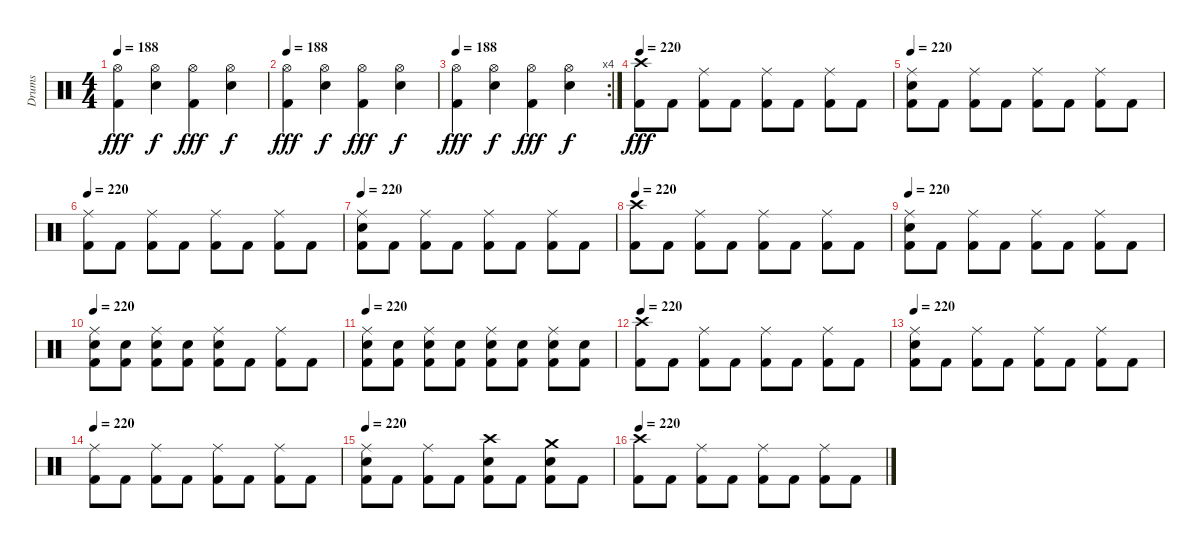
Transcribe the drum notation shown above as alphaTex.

\track ("Drums" "Drums") {instrument percussion}
\staff {score}
\articulation defaults
\ts (4 4)
\tempo 188
\clef neutral
\ks c
("Hi-Hat (open)" "Kick (hit) 2").4{dy fff} ("Hi-Hat (open)" "Snare (hit) 2").4{dy f} ("Hi-Hat (open)" "Kick (hit) 2").4{dy fff} ("Hi-Hat (open)" "Snare (hit) 2").4{dy f} |
\tempo 188
("Hi-Hat (open)" "Kick (hit) 2").4{dy fff} ("Hi-Hat (open)" "Snare (hit) 2").4{dy f} ("Hi-Hat (open)" "Kick (hit) 2").4{dy fff} ("Hi-Hat (open)" "Snare (hit) 2").4{dy f} |
\rc 4
\tempo 188
("Hi-Hat (open)" "Kick (hit) 2").4{dy fff} ("Hi-Hat (open)" "Snare (hit) 2").4{dy f} ("Hi-Hat (open)" "Kick (hit) 2").4{dy fff} ("Hi-Hat (open)" "Snare (hit) 2").4{dy f} |
\tempo 220
("Crash high (hit)" "Kick (hit) 2").8{dy fff} "Kick (hit) 2".8 ("Ride (middle)" "Kick (hit) 2").8 "Kick (hit) 2".8 ("Ride (middle)" "Kick (hit) 2").8 "Kick (hit) 2".8 ("Ride (middle)" "Kick (hit) 2").8 "Kick (hit) 2".8 |
\tempo 220
("Ride (middle)" "Snare (hit) 2" "Kick (hit) 2").8 "Kick (hit) 2".8 ("Ride (middle)" "Kick (hit) 2").8 "Kick (hit) 2".8 ("Ride (middle)" "Kick (hit) 2").8 "Kick (hit) 2".8 ("Ride (middle)" "Kick (hit) 2").8 "Kick (hit) 2".8 |
\tempo 220
("Ride (middle)" "Kick (hit) 2").8 "Kick (hit) 2".8 ("Ride (middle)" "Kick (hit) 2").8 "Kick (hit) 2".8 ("Ride (middle)" "Kick (hit) 2").8 "Kick (hit) 2".8 ("Ride (middle)" "Kick (hit) 2").8 "Kick (hit) 2".8 |
\tempo 220
("Ride (middle)" "Snare (hit) 2" "Kick (hit) 2").8 "Kick (hit) 2".8 ("Ride (middle)" "Kick (hit) 2").8 "Kick (hit) 2".8 ("Ride (middle)" "Kick (hit) 2").8 "Kick (hit) 2".8 ("Ride (middle)" "Kick (hit) 2").8 "Kick (hit) 2".8 |
\tempo 220
("Crash high (hit)" "Kick (hit) 2").8 "Kick (hit) 2".8 ("Ride (middle)" "Kick (hit) 2").8 "Kick (hit) 2".8 ("Ride (middle)" "Kick (hit) 2").8 "Kick (hit) 2".8 ("Ride (middle)" "Kick (hit) 2").8 "Kick (hit) 2".8 |
\tempo 220
("Ride (middle)" "Snare (hit) 2" "Kick (hit) 2").8 "Kick (hit) 2".8 ("Ride (middle)" "Kick (hit) 2").8 "Kick (hit) 2".8 ("Ride (middle)" "Kick (hit) 2").8 "Kick (hit) 2".8 ("Ride (middle)" "Kick (hit) 2").8 "Kick (hit) 2".8 |
\tempo 220
("Ride (middle)" "Snare (hit) 2" "Kick (hit) 2").8 ("Snare (hit) 2" "Kick (hit) 2").8 ("Ride (middle)" "Snare (hit) 2" "Kick (hit) 2").8 ("Snare (hit) 2" "Kick (hit) 2").8 ("Ride (middle)" "Snare (hit) 2" "Kick (hit) 2").8 "Kick (hit) 2".8 ("Ride (middle)" "Kick (hit) 2").8 "Kick (hit) 2".8 |
\tempo 220
("Ride (middle)" "Snare (hit) 2" "Kick (hit) 2").8 ("Snare (hit) 2" "Kick (hit) 2").8 ("Ride (middle)" "Snare (hit) 2" "Kick (hit) 2").8 ("Snare (hit) 2" "Kick (hit) 2").8 ("Ride (middle)" "Snare (hit) 2" "Kick (hit) 2").8 ("Snare (hit) 2" "Kick (hit) 2").8 ("Ride (middle)" "Snare (hit) 2" "Kick (hit) 2").8 ("Snare (hit) 2" "Kick (hit) 2").8 |
\tempo 220
("Crash high (hit)" "Kick (hit) 2").8 "Kick (hit) 2".8 ("Ride (middle)" "Kick (hit) 2").8 "Kick (hit) 2".8 ("Ride (middle)" "Kick (hit) 2").8 "Kick (hit) 2".8 ("Ride (middle)" "Kick (hit) 2").8 "Kick (hit) 2".8 |
\tempo 220
("Ride (middle)" "Snare (hit) 2" "Kick (hit) 2").8 "Kick (hit) 2".8 ("Ride (middle)" "Kick (hit) 2").8 "Kick (hit) 2".8 ("Ride (middle)" "Kick (hit) 2").8 "Kick (hit) 2".8 ("Ride (middle)" "Kick (hit) 2").8 "Kick (hit) 2".8 |
\tempo 220
("Ride (middle)" "Kick (hit) 2").8 "Kick (hit) 2".8 ("Ride (middle)" "Kick (hit) 2").8 "Kick (hit) 2".8 ("Ride (middle)" "Kick (hit) 2").8 "Kick (hit) 2".8 ("Ride (middle)" "Kick (hit) 2").8 "Kick (hit) 2".8 |
\tempo 220
("Ride (middle)" "Snare (hit) 2" "Kick (hit) 2").8 "Kick (hit) 2".8 ("Ride (middle)" "Kick (hit) 2").8 "Kick (hit) 2".8 ("Crash high (hit)" "Snare (hit) 2" "Kick (hit) 2").8 "Kick (hit) 2".8 ("Crash medium (hit)" "Snare (hit) 2" "Kick (hit) 2").8 "Kick (hit) 2".8 |
\tempo 220
("Crash high (hit)" "Kick (hit) 2").8 "Kick (hit) 2".8 ("Ride (middle)" "Kick (hit) 2").8 "Kick (hit) 2".8 ("Ride (middle)" "Kick (hit) 2").8 "Kick (hit) 2".8 ("Ride (middle)" "Kick (hit) 2").8 "Kick (hit) 2".8
